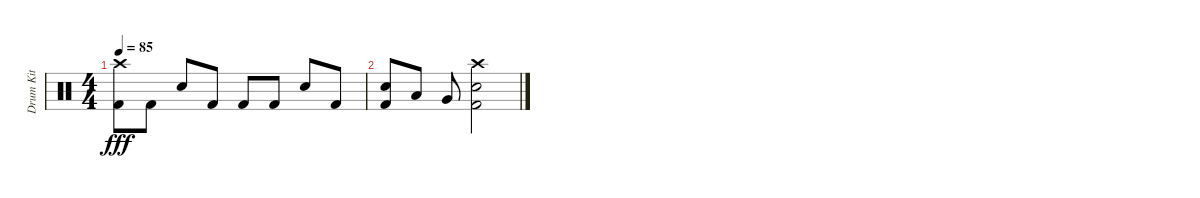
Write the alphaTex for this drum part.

\track ("Drum Kit" "Drum Kit") {instrument percussion}
\staff {score}
\articulation defaults
\ts (4 4)
\tempo 85
\clef neutral
\ks c
("Crash high (hit)" "Kick (hit) 2").8{dy fff} "Kick (hit) 2".8 "Snare (hit) 2".8 "Kick (hit) 2".8 "Kick (hit) 2".8 "Kick (hit) 2".8 "Snare (hit) 2".8 "Kick (hit) 2".8 |
("Snare (hit) 2" "Kick (hit) 2").8 "Low Tom (hit)".8 "Very Low Tom (hit)".8 ("Crash high (hit)" "Snare (hit) 2" "Kick (hit) 2").2
